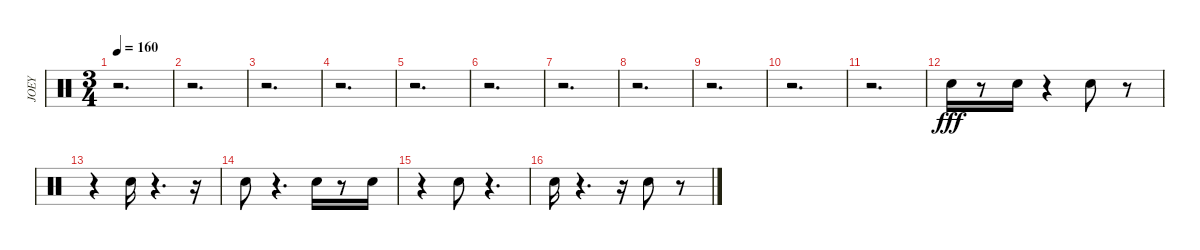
\track ("JOEY" "JOEY") {instrument percussion}
\staff {score}
\articulation defaults
\ts (3 4)
\tempo 160
\clef neutral
\ks c
r.2{d dy fff} |
r.2{d} |
r.2{d} |
r.2{d} |
r.2{d} |
r.2{d} |
r.2{d} |
r.2{d} |
r.2{d} |
r.2{d} |
r.2{d} |
"Snare (hit) 2".16 r.8 "Snare (hit) 2".16 r.4 "Snare (hit) 2".8 r.8 |
r.4 "Snare (hit) 2".16 r.4{d} r.16 |
"Snare (hit) 2".8 r.4{d} "Snare (hit) 2".16 r.8 "Snare (hit) 2".16 |
r.4 "Snare (hit) 2".8 r.4{d} |
"Snare (hit) 2".16 r.4{d} r.16 "Snare (hit) 2".8 r.8
